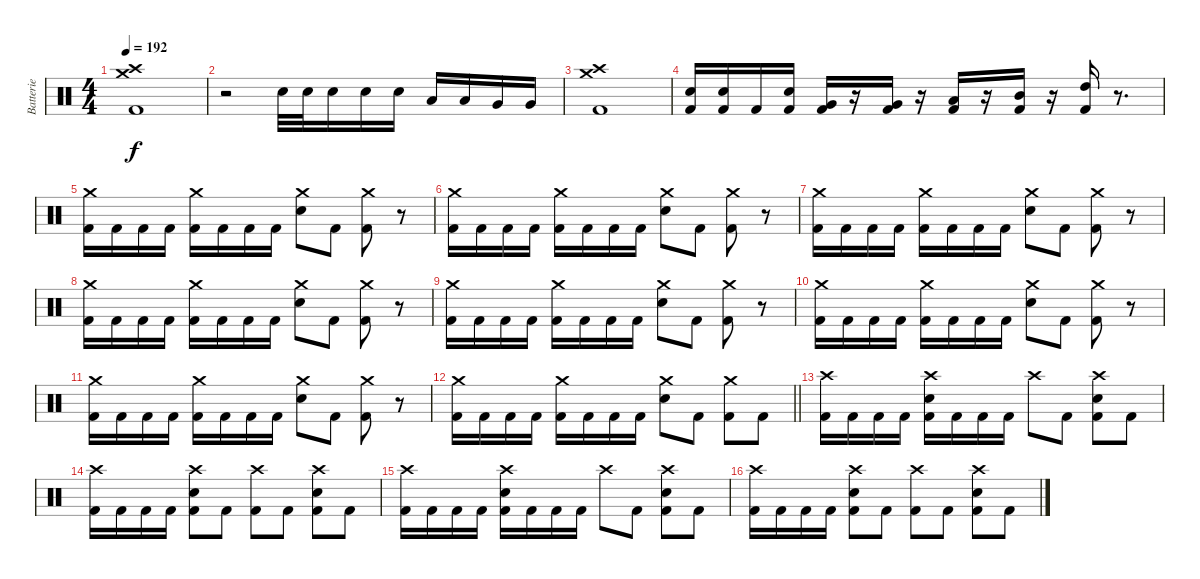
\track ("Batterie" "Batterie") {instrument percussion}
\staff {score}
\articulation defaults
\ts (4 4)
\section ("" "")
\tempo 192
\clef neutral
\ks c
("Crash medium (hit)" "Crash high (hit)" "Kick (hit) 2").1{dy f} |
r.2 "Snare (hit) 2".32 "Snare (hit) 2".32 "Snare (hit) 2".16 "Snare (hit) 2".16 "Snare (hit) 2".16 "Low Tom (hit)".16 "Low Tom (hit)".16 "Very Low Tom (hit)".16 "Very Low Tom (hit)".16 |
("Crash medium (hit)" "Crash high (hit)" "Kick (hit) 2").1 |
("Snare (hit) 2" "Kick (hit) 2").16 ("Snare (hit) 2" "Kick (hit) 2").16 "Kick (hit) 2".16 ("Snare (hit) 2" "Kick (hit) 2").16 ("Very Low Tom (hit)" "Kick (hit) 2").16 r.16 ("Very Low Tom (hit)" "Kick (hit) 2").16 r.16 ("Low Tom (hit)" "Kick (hit) 2").16 r.16 ("Mid Tom (hit)" "Kick (hit) 2").16 r.16 ("High Tom (hit)" "Kick (hit) 2").16 r.8{d} |
("Crash medium (hit)" "Kick (hit) 2").16 "Kick (hit) 2".16 "Kick (hit) 2".16 "Kick (hit) 2".16 ("Crash medium (hit)" "Kick (hit) 2").16 "Kick (hit) 2".16 "Kick (hit) 2".16 "Kick (hit) 2".16 ("Crash medium (hit)" "Snare (hit) 2").8 "Kick (hit) 2".8 ("Crash medium (hit)" "Kick (hit) 2").8 r.8 |
("Crash medium (hit)" "Kick (hit) 2").16 "Kick (hit) 2".16 "Kick (hit) 2".16 "Kick (hit) 2".16 ("Crash medium (hit)" "Kick (hit) 2").16 "Kick (hit) 2".16 "Kick (hit) 2".16 "Kick (hit) 2".16 ("Crash medium (hit)" "Snare (hit) 2").8 "Kick (hit) 2".8 ("Crash medium (hit)" "Kick (hit) 2").8 r.8 |
("Crash medium (hit)" "Kick (hit) 2").16 "Kick (hit) 2".16 "Kick (hit) 2".16 "Kick (hit) 2".16 ("Crash medium (hit)" "Kick (hit) 2").16 "Kick (hit) 2".16 "Kick (hit) 2".16 "Kick (hit) 2".16 ("Crash medium (hit)" "Snare (hit) 2").8 "Kick (hit) 2".8 ("Crash medium (hit)" "Kick (hit) 2").8 r.8 |
("Crash medium (hit)" "Kick (hit) 2").16 "Kick (hit) 2".16 "Kick (hit) 2".16 "Kick (hit) 2".16 ("Crash medium (hit)" "Kick (hit) 2").16 "Kick (hit) 2".16 "Kick (hit) 2".16 "Kick (hit) 2".16 ("Crash medium (hit)" "Snare (hit) 2").8 "Kick (hit) 2".8 ("Crash medium (hit)" "Kick (hit) 2").8 r.8 |
("Crash medium (hit)" "Kick (hit) 2").16 "Kick (hit) 2".16 "Kick (hit) 2".16 "Kick (hit) 2".16 ("Crash medium (hit)" "Kick (hit) 2").16 "Kick (hit) 2".16 "Kick (hit) 2".16 "Kick (hit) 2".16 ("Crash medium (hit)" "Snare (hit) 2").8 "Kick (hit) 2".8 ("Crash medium (hit)" "Kick (hit) 2").8 r.8 |
("Crash medium (hit)" "Kick (hit) 2").16 "Kick (hit) 2".16 "Kick (hit) 2".16 "Kick (hit) 2".16 ("Crash medium (hit)" "Kick (hit) 2").16 "Kick (hit) 2".16 "Kick (hit) 2".16 "Kick (hit) 2".16 ("Crash medium (hit)" "Snare (hit) 2").8 "Kick (hit) 2".8 ("Crash medium (hit)" "Kick (hit) 2").8 r.8 |
("Crash medium (hit)" "Kick (hit) 2").16 "Kick (hit) 2".16 "Kick (hit) 2".16 "Kick (hit) 2".16 ("Crash medium (hit)" "Kick (hit) 2").16 "Kick (hit) 2".16 "Kick (hit) 2".16 "Kick (hit) 2".16 ("Crash medium (hit)" "Snare (hit) 2").8 "Kick (hit) 2".8 ("Crash medium (hit)" "Kick (hit) 2").8 r.8 |
\barLineRight lightlight
("Crash medium (hit)" "Kick (hit) 2").16 "Kick (hit) 2".16 "Kick (hit) 2".16 "Kick (hit) 2".16 ("Crash medium (hit)" "Kick (hit) 2").16 "Kick (hit) 2".16 "Kick (hit) 2".16 "Kick (hit) 2".16 ("Crash medium (hit)" "Snare (hit) 2").8 "Kick (hit) 2".8 ("Crash medium (hit)" "Kick (hit) 2").8 "Kick (hit) 2".8 |
\section ("" "")
("Crash high (hit)" "Kick (hit) 2").16 "Kick (hit) 2".16 "Kick (hit) 2".16 "Kick (hit) 2".16 ("Crash high (hit)" "Snare (hit) 2" "Kick (hit) 2").16 "Kick (hit) 2".16 "Kick (hit) 2".16 "Kick (hit) 2".16 "Crash high (hit)".8 "Kick (hit) 2".8 ("Crash high (hit)" "Snare (hit) 2" "Kick (hit) 2").8 "Kick (hit) 2".8 |
("Crash high (hit)" "Kick (hit) 2").16 "Kick (hit) 2".16 "Kick (hit) 2".16 "Kick (hit) 2".16 ("Crash high (hit)" "Snare (hit) 2" "Kick (hit) 2").8 "Kick (hit) 2".8 ("Crash high (hit)" "Kick (hit) 2").8 "Kick (hit) 2".8 ("Crash high (hit)" "Snare (hit) 2" "Kick (hit) 2").8 "Kick (hit) 2".8 |
("Crash high (hit)" "Kick (hit) 2").16 "Kick (hit) 2".16 "Kick (hit) 2".16 "Kick (hit) 2".16 ("Crash high (hit)" "Snare (hit) 2" "Kick (hit) 2").16 "Kick (hit) 2".16 "Kick (hit) 2".16 "Kick (hit) 2".16 "Crash high (hit)".8 "Kick (hit) 2".8 ("Crash high (hit)" "Snare (hit) 2" "Kick (hit) 2").8 "Kick (hit) 2".8 |
("Crash high (hit)" "Kick (hit) 2").16 "Kick (hit) 2".16 "Kick (hit) 2".16 "Kick (hit) 2".16 ("Crash high (hit)" "Snare (hit) 2" "Kick (hit) 2").8 "Kick (hit) 2".8 ("Crash high (hit)" "Kick (hit) 2").8 "Kick (hit) 2".8 ("Crash high (hit)" "Snare (hit) 2" "Kick (hit) 2").8 "Kick (hit) 2".8
